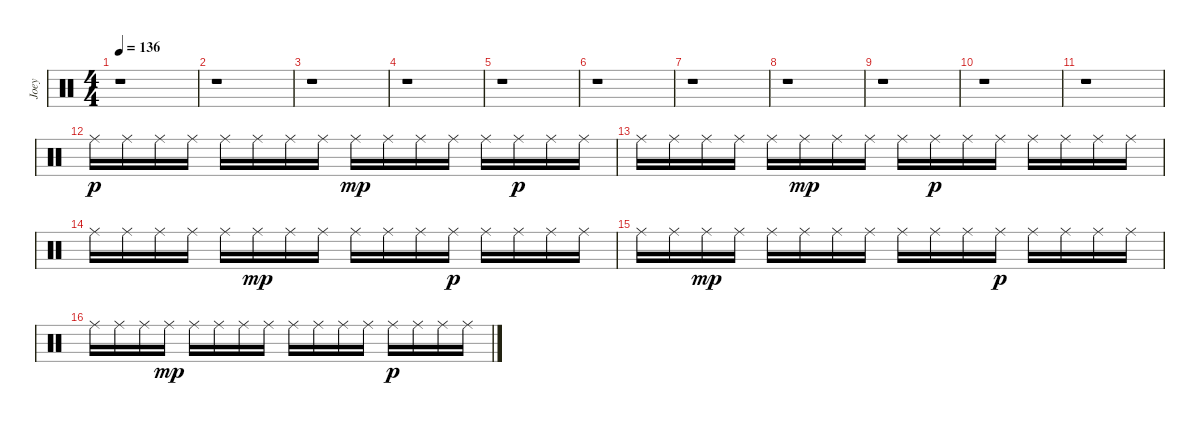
\track ("Joey" "Joey") {instrument percussion}
\staff {score}
\articulation defaults
\ts (4 4)
\tempo 136
\clef neutral
\ks c
r.1{dy p} |
r.1 |
r.1 |
r.1 |
r.1 |
r.1 |
r.1 |
r.1 |
r.1 |
r.1 |
r.1 |
"Ride (middle)".16 "Ride (middle)".16 "Ride (middle)".16 "Ride (middle)".16 "Ride (middle)".16 "Ride (middle)".16 "Ride (middle)".16 "Ride (middle)".16 "Ride (middle)".16{dy mp} "Ride (middle)".16 "Ride (middle)".16 "Ride (middle)".16 "Ride (middle)".16 "Ride (middle)".16{dy p} "Ride (middle)".16 "Ride (middle)".16 |
"Ride (middle)".16 "Ride (middle)".16 "Ride (middle)".16 "Ride (middle)".16 "Ride (middle)".16 "Ride (middle)".16{dy mp} "Ride (middle)".16 "Ride (middle)".16 "Ride (middle)".16 "Ride (middle)".16{dy p} "Ride (middle)".16 "Ride (middle)".16 "Ride (middle)".16 "Ride (middle)".16 "Ride (middle)".16 "Ride (middle)".16 |
"Ride (middle)".16 "Ride (middle)".16 "Ride (middle)".16 "Ride (middle)".16 "Ride (middle)".16 "Ride (middle)".16{dy mp} "Ride (middle)".16 "Ride (middle)".16 "Ride (middle)".16 "Ride (middle)".16 "Ride (middle)".16 "Ride (middle)".16{dy p} "Ride (middle)".16 "Ride (middle)".16 "Ride (middle)".16 "Ride (middle)".16 |
"Ride (middle)".16 "Ride (middle)".16 "Ride (middle)".16{dy mp} "Ride (middle)".16 "Ride (middle)".16 "Ride (middle)".16 "Ride (middle)".16 "Ride (middle)".16 "Ride (middle)".16 "Ride (middle)".16 "Ride (middle)".16 "Ride (middle)".16{dy p} "Ride (middle)".16 "Ride (middle)".16 "Ride (middle)".16 "Ride (middle)".16 |
"Ride (middle)".16 "Ride (middle)".16 "Ride (middle)".16 "Ride (middle)".16{dy mp} "Ride (middle)".16 "Ride (middle)".16 "Ride (middle)".16 "Ride (middle)".16 "Ride (middle)".16 "Ride (middle)".16 "Ride (middle)".16 "Ride (middle)".16 "Ride (middle)".16{dy p} "Ride (middle)".16 "Ride (middle)".16 "Ride (middle)".16
